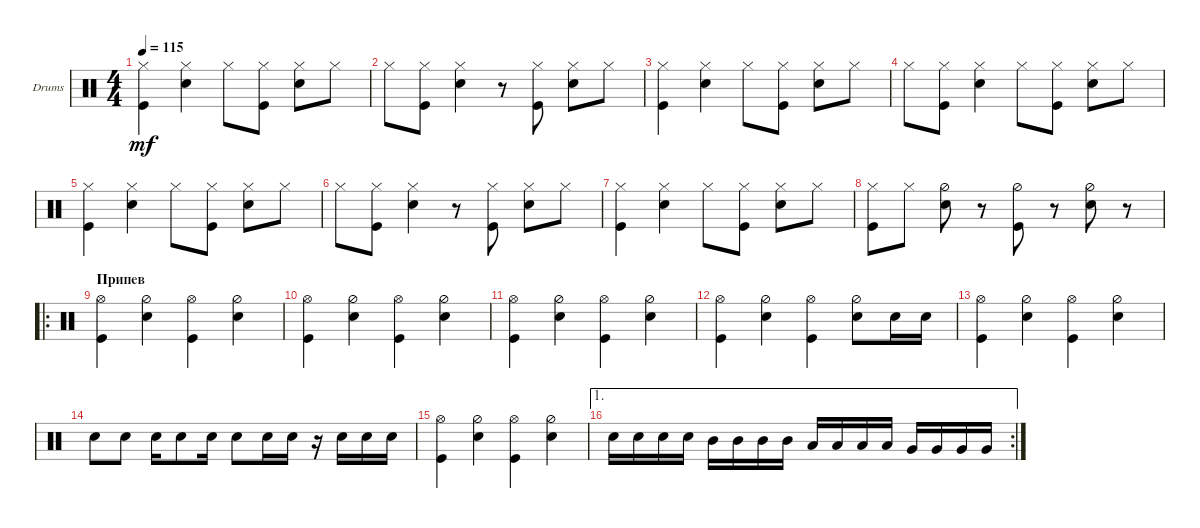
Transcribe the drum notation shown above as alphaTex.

\defaultSystemsLayout 4
\bracketExtendMode groupsimilarinstruments
\firstSystemTrackNameOrientation horizontal
\otherSystemsTrackNameOrientation horizontal
\track ("Ударные" "Drums") {instrument percussion}
\staff {score}
\articulation defaults
\ts (4 4)
\tempo 115
\clef neutral
\ks c
("Kick (hit)" "Hi-Hat (closed)").4{dy mf} ("Snare (hit) 2" "Hi-Hat (closed)").4 "Hi-Hat (closed)".8 ("Kick (hit)" "Hi-Hat (closed)").8 ("Hi-Hat (closed)" "Snare (hit) 2").8 "Hi-Hat (closed)".8 |
"Hi-Hat (closed)".8 ("Kick (hit)" "Hi-Hat (closed)").8 ("Snare (hit) 2" "Hi-Hat (closed)").4 r.8 ("Kick (hit)" "Hi-Hat (closed)").8 ("Hi-Hat (closed)" "Snare (hit) 2").8 "Hi-Hat (closed)".8 |
("Kick (hit)" "Hi-Hat (closed)").4 ("Snare (hit) 2" "Hi-Hat (closed)").4 "Hi-Hat (closed)".8 ("Kick (hit)" "Hi-Hat (closed)").8 ("Hi-Hat (closed)" "Snare (hit) 2").8 "Hi-Hat (closed)".8 |
"Hi-Hat (closed)".8 ("Kick (hit)" "Hi-Hat (closed)").8 ("Snare (hit) 2" "Hi-Hat (closed)").4 "Hi-Hat (closed)".8 ("Kick (hit)" "Hi-Hat (closed)").8 ("Hi-Hat (closed)" "Snare (hit) 2").8 "Hi-Hat (closed)".8 |
("Kick (hit)" "Hi-Hat (closed)").4 ("Snare (hit) 2" "Hi-Hat (closed)").4 "Hi-Hat (closed)".8 ("Kick (hit)" "Hi-Hat (closed)").8 ("Hi-Hat (closed)" "Snare (hit) 2").8 "Hi-Hat (closed)".8 |
"Hi-Hat (closed)".8 ("Kick (hit)" "Hi-Hat (closed)").8 ("Snare (hit) 2" "Hi-Hat (closed)").4 r.8 ("Kick (hit)" "Hi-Hat (closed)").8 ("Hi-Hat (closed)" "Snare (hit) 2").8 "Hi-Hat (closed)".8 |
("Kick (hit)" "Hi-Hat (closed)").4 ("Snare (hit) 2" "Hi-Hat (closed)").4 "Hi-Hat (closed)".8 ("Kick (hit)" "Hi-Hat (closed)").8 ("Hi-Hat (closed)" "Snare (hit) 2").8 "Hi-Hat (closed)".8 |
("Hi-Hat (closed)" "Kick (hit)").8 "Hi-Hat (closed)".8 ("Snare (hit) 2" "Hi-Hat (half)").8 r.8 ("Hi-Hat (half)" "Kick (hit)").8 r.8 ("Hi-Hat (half)" "Snare (hit) 2").8 r.8 |
\ro
\section ("" "Припев")
("Kick (hit)" "Hi-Hat (open)").4 ("Hi-Hat (half)" "Snare (hit) 2").4 ("Kick (hit)" "Hi-Hat (open)").4 ("Hi-Hat (half)" "Snare (hit) 2").4 |
("Kick (hit)" "Hi-Hat (open)").4 ("Hi-Hat (half)" "Snare (hit) 2").4 ("Kick (hit)" "Hi-Hat (open)").4 ("Hi-Hat (half)" "Snare (hit) 2").4 |
("Kick (hit)" "Hi-Hat (open)").4 ("Hi-Hat (half)" "Snare (hit) 2").4 ("Kick (hit)" "Hi-Hat (open)").4 ("Hi-Hat (half)" "Snare (hit) 2").4 |
("Kick (hit)" "Hi-Hat (open)").4 ("Hi-Hat (half)" "Snare (hit) 2").4 ("Kick (hit)" "Hi-Hat (open)").4 ("Hi-Hat (half)" "Snare (hit) 2").8 "Snare (hit) 2".16 "Snare (hit) 2".16 |
("Kick (hit)" "Hi-Hat (open)").4 ("Hi-Hat (half)" "Snare (hit) 2").4 ("Kick (hit)" "Hi-Hat (open)").4 ("Hi-Hat (half)" "Snare (hit) 2").4 |
"Snare (hit) 2".8 "Snare (hit) 2".8 "Snare (hit) 2".16 "Snare (hit) 2".8 "Snare (hit) 2".16 "Snare (hit) 2".8 "Snare (hit) 2".16 "Snare (hit) 2".16 r.16 "Snare (hit) 2".16 "Snare (hit) 2".16 "Snare (hit) 2".16 |
("Kick (hit)" "Hi-Hat (open)").4 ("Hi-Hat (half)" "Snare (hit) 2").4 ("Kick (hit)" "Hi-Hat (open)").4 ("Hi-Hat (half)" "Snare (hit) 2").4 |
\ae 1
\rc 2 "Snare (hit) 2".16 "Snare (hit) 2".16 "Snare (hit) 2".16 "Snare (hit) 2".16 "Mid Tom (hit)".16 "Mid Tom (hit)".16 "Mid Tom (hit)".16 "Mid Tom (hit)".16 "Low Tom (hit)".16 "Low Tom (hit)".16 "Low Tom (hit)".16 "Low Tom (hit)".16 "Very Low Tom (hit)".16 "Very Low Tom (hit)".16 "Very Low Tom (hit)".16 "Very Low Tom (hit)".16
